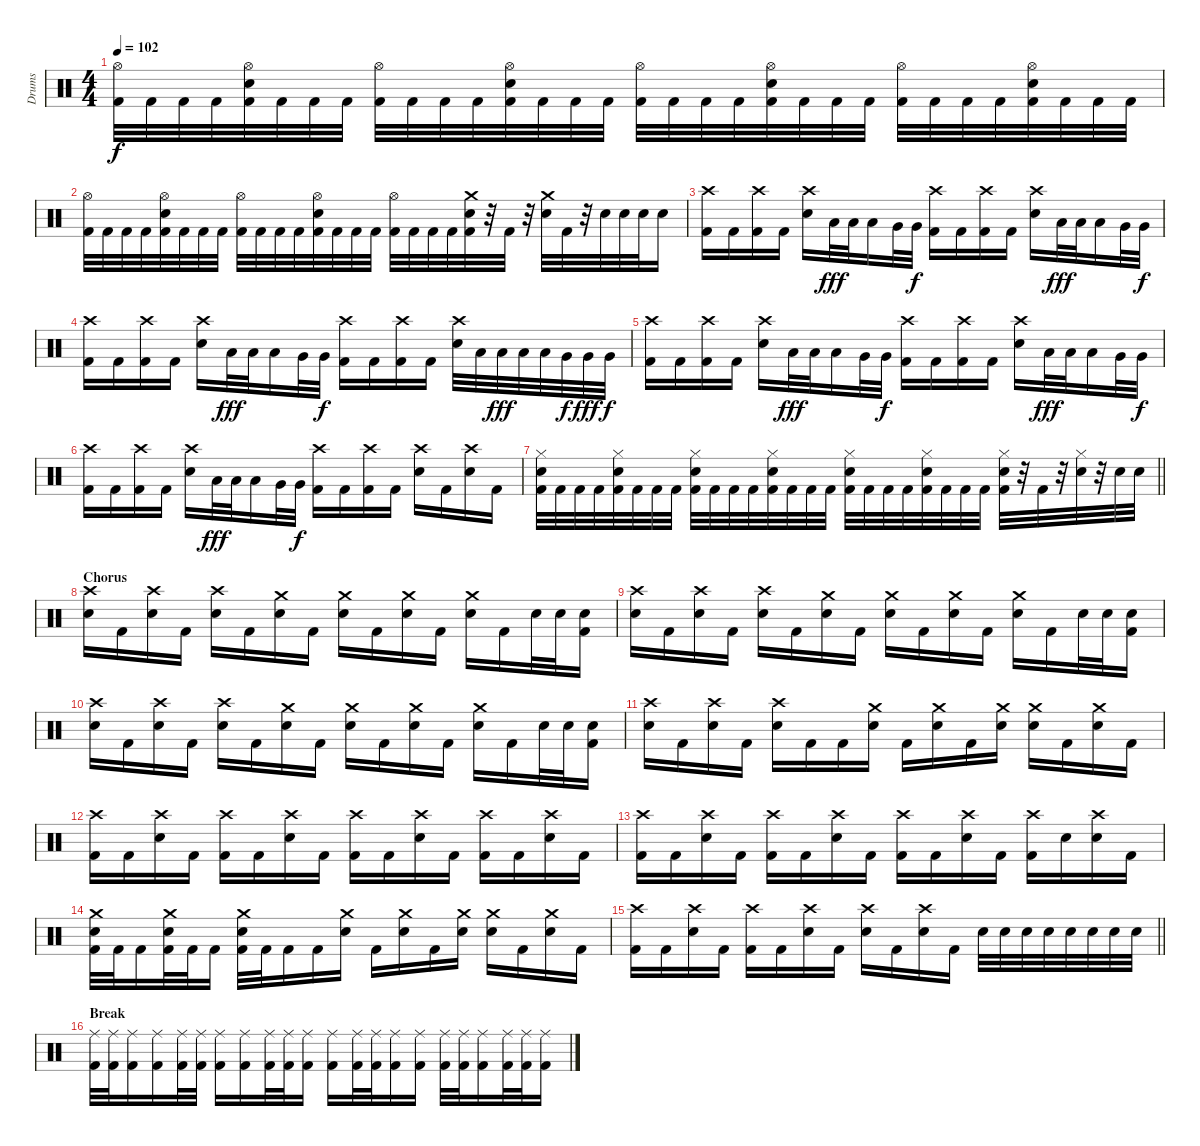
\track ("Drums" "Drums") {instrument percussion}
\staff {score}
\articulation defaults
\ts (4 4)
\tempo 102
\clef neutral
\ks c
("Hi-Hat (open)" "Kick (hit) 2").32{dy f} "Kick (hit) 2".32 "Kick (hit) 2".32 "Kick (hit) 2".32 ("Hi-Hat (open)" "Snare (hit) 2" "Kick (hit) 2").32 "Kick (hit) 2".32 "Kick (hit) 2".32 "Kick (hit) 2".32 ("Hi-Hat (open)" "Kick (hit) 2").32 "Kick (hit) 2".32 "Kick (hit) 2".32 "Kick (hit) 2".32 ("Hi-Hat (open)" "Snare (hit) 2" "Kick (hit) 2").32 "Kick (hit) 2".32 "Kick (hit) 2".32 "Kick (hit) 2".32 ("Hi-Hat (open)" "Kick (hit) 2").32 "Kick (hit) 2".32 "Kick (hit) 2".32 "Kick (hit) 2".32 ("Hi-Hat (open)" "Snare (hit) 2" "Kick (hit) 2").32 "Kick (hit) 2".32 "Kick (hit) 2".32 "Kick (hit) 2".32 ("Hi-Hat (open)" "Kick (hit) 2").32 "Kick (hit) 2".32 "Kick (hit) 2".32 "Kick (hit) 2".32 ("Hi-Hat (open)" "Snare (hit) 2" "Kick (hit) 2").32 "Kick (hit) 2".32 "Kick (hit) 2".32 "Kick (hit) 2".32 |
("Hi-Hat (open)" "Kick (hit) 2").32 "Kick (hit) 2".32 "Kick (hit) 2".32 "Kick (hit) 2".32 ("Hi-Hat (open)" "Snare (hit) 2" "Kick (hit) 2").32 "Kick (hit) 2".32 "Kick (hit) 2".32 "Kick (hit) 2".32 ("Hi-Hat (open)" "Kick (hit) 2").32 "Kick (hit) 2".32 "Kick (hit) 2".32 "Kick (hit) 2".32 ("Hi-Hat (open)" "Snare (hit) 2" "Kick (hit) 2").32 "Kick (hit) 2".32 "Kick (hit) 2".32 "Kick (hit) 2".32 ("Hi-Hat (open)" "Kick (hit) 2").32 "Kick (hit) 2".32 "Kick (hit) 2".32 "Kick (hit) 2".32 ("Crash medium (hit)" "Snare (hit) 2" "Kick (hit) 2").32 r.32 "Kick (hit) 2".32 r.32 ("Crash medium (hit)" "Snare (hit) 2").32 "Kick (hit) 2".32 r.32 "Snare (hit) 2".32 "Snare (hit) 2".32 "Snare (hit) 2".32 "Snare (hit) 2".16 |
("Crash high (hit)" "Kick (hit) 2").16 "Kick (hit) 2".16 ("Crash high (hit)" "Kick (hit) 2").16 "Kick (hit) 2".16 ("Crash high (hit)" "Snare (hit) 2").16 "Low Tom (hit)".32{dy fff} "Low Tom (hit)".32 "Low Tom (hit)".16 "Very Low Tom (hit)".32 "Very Low Tom (hit)".32{dy f} ("Crash high (hit)" "Kick (hit) 2").16 "Kick (hit) 2".16 ("Crash high (hit)" "Kick (hit) 2").16 "Kick (hit) 2".16 ("Crash high (hit)" "Snare (hit) 2").16 "Low Tom (hit)".32{dy fff} "Low Tom (hit)".32 "Low Tom (hit)".16 "Very Low Tom (hit)".32 "Very Low Tom (hit)".32{dy f} |
("Crash high (hit)" "Kick (hit) 2").16 "Kick (hit) 2".16 ("Crash high (hit)" "Kick (hit) 2").16 "Kick (hit) 2".16 ("Crash high (hit)" "Snare (hit) 2").16 "Low Tom (hit)".32{dy fff} "Low Tom (hit)".32 "Low Tom (hit)".16 "Very Low Tom (hit)".32 "Very Low Tom (hit)".32{dy f} ("Crash high (hit)" "Kick (hit) 2").16 "Kick (hit) 2".16 ("Crash high (hit)" "Kick (hit) 2").16 "Kick (hit) 2".16 ("Crash high (hit)" "Snare (hit) 2").32 "Low Tom (hit)".32 "Low Tom (hit)".32{dy fff} "Low Tom (hit)".32 "Low Tom (hit)".32 "Very Low Tom (hit)".32{dy f} "Very Low Tom (hit)".32{dy fff} "Very Low Tom (hit)".32{dy f} |
("Crash high (hit)" "Kick (hit) 2").16 "Kick (hit) 2".16 ("Crash high (hit)" "Kick (hit) 2").16 "Kick (hit) 2".16 ("Crash high (hit)" "Snare (hit) 2").16 "Low Tom (hit)".32{dy fff} "Low Tom (hit)".32 "Low Tom (hit)".16 "Very Low Tom (hit)".32 "Very Low Tom (hit)".32{dy f} ("Crash high (hit)" "Kick (hit) 2").16 "Kick (hit) 2".16 ("Crash high (hit)" "Kick (hit) 2").16 "Kick (hit) 2".16 ("Crash high (hit)" "Snare (hit) 2").16 "Low Tom (hit)".32{dy fff} "Low Tom (hit)".32 "Low Tom (hit)".16 "Very Low Tom (hit)".32 "Very Low Tom (hit)".32{dy f} |
("Crash high (hit)" "Kick (hit) 2").16 "Kick (hit) 2".16 ("Crash high (hit)" "Kick (hit) 2").16 "Kick (hit) 2".16 ("Crash high (hit)" "Snare (hit) 2").16 "Low Tom (hit)".32{dy fff} "Low Tom (hit)".32 "Low Tom (hit)".16 "Very Low Tom (hit)".32 "Very Low Tom (hit)".32{dy f} ("Crash high (hit)" "Kick (hit) 2").16 "Kick (hit) 2".16 ("Crash high (hit)" "Kick (hit) 2").16 "Kick (hit) 2".16 ("Crash high (hit)" "Snare (hit) 2").16 "Kick (hit) 2".16 ("Crash high (hit)" "Snare (hit) 2").16 "Kick (hit) 2".16 |
\barLineRight lightlight
("Hi-Hat (closed)" "Snare (hit) 2" "Kick (hit) 2").32 "Kick (hit) 2".32 "Kick (hit) 2".32 "Kick (hit) 2".32 ("Hi-Hat (closed)" "Snare (hit) 2" "Kick (hit) 2").32 "Kick (hit) 2".32 "Kick (hit) 2".32 "Kick (hit) 2".32 ("Hi-Hat (closed)" "Snare (hit) 2" "Kick (hit) 2").32 "Kick (hit) 2".32 "Kick (hit) 2".32 "Kick (hit) 2".32 ("Hi-Hat (closed)" "Snare (hit) 2" "Kick (hit) 2").32 "Kick (hit) 2".32 "Kick (hit) 2".32 "Kick (hit) 2".32 ("Hi-Hat (closed)" "Snare (hit) 2" "Kick (hit) 2").32 "Kick (hit) 2".32 "Kick (hit) 2".32 "Kick (hit) 2".32 ("Hi-Hat (closed)" "Snare (hit) 2" "Kick (hit) 2").32 "Kick (hit) 2".32 "Kick (hit) 2".32 "Kick (hit) 2".32 ("Hi-Hat (closed)" "Snare (hit) 2" "Kick (hit) 2").32 r.32 "Kick (hit) 2".32 r.32 ("Hi-Hat (closed)" "Snare (hit) 2").32 r.32 "Snare (hit) 2".32 "Snare (hit) 2".32 |
\section ("" "Chorus")
("Crash high (hit)" "Snare (hit) 2").16 "Kick (hit) 2".16 ("Crash high (hit)" "Snare (hit) 2").16 "Kick (hit) 2".16 ("Crash high (hit)" "Snare (hit) 2").16 "Kick (hit) 2".16 ("Crash medium (hit)" "Snare (hit) 2").16 "Kick (hit) 2".16 ("Crash medium (hit)" "Snare (hit) 2").16 "Kick (hit) 2".16 ("Crash medium (hit)" "Snare (hit) 2").16 "Kick (hit) 2".16 ("Crash medium (hit)" "Snare (hit) 2").16 "Kick (hit) 2".16 "Snare (hit) 2".32 "Snare (hit) 2".32 ("Snare (hit) 2" "Kick (hit) 2").16 |
("Crash high (hit)" "Snare (hit) 2").16 "Kick (hit) 2".16 ("Crash high (hit)" "Snare (hit) 2").16 "Kick (hit) 2".16 ("Crash high (hit)" "Snare (hit) 2").16 "Kick (hit) 2".16 ("Crash medium (hit)" "Snare (hit) 2").16 "Kick (hit) 2".16 ("Crash medium (hit)" "Snare (hit) 2").16 "Kick (hit) 2".16 ("Crash medium (hit)" "Snare (hit) 2").16 "Kick (hit) 2".16 ("Crash medium (hit)" "Snare (hit) 2").16 "Kick (hit) 2".16 "Snare (hit) 2".32 "Snare (hit) 2".32 ("Snare (hit) 2" "Kick (hit) 2").16 |
("Crash high (hit)" "Snare (hit) 2").16 "Kick (hit) 2".16 ("Crash high (hit)" "Snare (hit) 2").16 "Kick (hit) 2".16 ("Crash high (hit)" "Snare (hit) 2").16 "Kick (hit) 2".16 ("Crash medium (hit)" "Snare (hit) 2").16 "Kick (hit) 2".16 ("Crash medium (hit)" "Snare (hit) 2").16 "Kick (hit) 2".16 ("Crash medium (hit)" "Snare (hit) 2").16 "Kick (hit) 2".16 ("Crash medium (hit)" "Snare (hit) 2").16 "Kick (hit) 2".16 "Snare (hit) 2".32 "Snare (hit) 2".32 ("Snare (hit) 2" "Kick (hit) 2").16 |
("Crash high (hit)" "Snare (hit) 2").16 "Kick (hit) 2".16 ("Crash high (hit)" "Snare (hit) 2").16 "Kick (hit) 2".16 ("Crash high (hit)" "Snare (hit) 2").16 "Kick (hit) 2".16 "Kick (hit) 2".16 ("Crash medium (hit)" "Snare (hit) 2").16 "Kick (hit) 2".16 ("Crash medium (hit)" "Snare (hit) 2").16 "Kick (hit) 2".16 ("Crash medium (hit)" "Snare (hit) 2").16 ("Crash medium (hit)" "Snare (hit) 2").16 "Kick (hit) 2".16 ("Crash medium (hit)" "Snare (hit) 2").16 "Kick (hit) 2".16 |
("Crash high (hit)" "Kick (hit) 2").16 "Kick (hit) 2".16 ("Crash high (hit)" "Snare (hit) 2").16 "Kick (hit) 2".16 ("Crash high (hit)" "Kick (hit) 2").16 "Kick (hit) 2".16 ("Crash high (hit)" "Snare (hit) 2").16 "Kick (hit) 2".16 ("Crash high (hit)" "Kick (hit) 2").16 "Kick (hit) 2".16 ("Crash high (hit)" "Snare (hit) 2").16 "Kick (hit) 2".16 ("Crash high (hit)" "Kick (hit) 2").16 "Kick (hit) 2".16 ("Crash high (hit)" "Snare (hit) 2").16 "Kick (hit) 2".16 |
("Crash high (hit)" "Kick (hit) 2").16 "Kick (hit) 2".16 ("Crash high (hit)" "Snare (hit) 2").16 "Kick (hit) 2".16 ("Crash high (hit)" "Kick (hit) 2").16 "Kick (hit) 2".16 ("Crash high (hit)" "Snare (hit) 2").16 "Kick (hit) 2".16 ("Crash high (hit)" "Kick (hit) 2").16 "Kick (hit) 2".16 ("Crash high (hit)" "Snare (hit) 2").16 "Kick (hit) 2".16 ("Crash high (hit)" "Kick (hit) 2").16 "Snare (hit) 2".16 ("Crash high (hit)" "Snare (hit) 2").16 "Kick (hit) 2".16 |
("Crash medium (hit)" "Snare (hit) 2" "Kick (hit) 2").32 "Kick (hit) 2".32 "Kick (hit) 2".16 ("Crash medium (hit)" "Snare (hit) 2" "Kick (hit) 2").32 "Kick (hit) 2".32 "Kick (hit) 2".16 ("Crash medium (hit)" "Snare (hit) 2" "Kick (hit) 2").32 "Kick (hit) 2".32 "Kick (hit) 2".16 "Kick (hit) 2".16 ("Crash medium (hit)" "Snare (hit) 2").16 "Kick (hit) 2".16 ("Crash medium (hit)" "Snare (hit) 2").16 "Kick (hit) 2".16 ("Crash medium (hit)" "Snare (hit) 2").16 ("Crash medium (hit)" "Snare (hit) 2").16 "Kick (hit) 2".16 ("Crash medium (hit)" "Snare (hit) 2").16 "Kick (hit) 2".16 |
\barLineRight lightlight
("Crash high (hit)" "Kick (hit) 2").16 "Kick (hit) 2".16 ("Crash high (hit)" "Snare (hit) 2").16 "Kick (hit) 2".16 ("Crash high (hit)" "Kick (hit) 2").16 "Kick (hit) 2".16 ("Crash high (hit)" "Snare (hit) 2").16 "Kick (hit) 2".16 ("Crash high (hit)" "Snare (hit) 2").16 "Kick (hit) 2".16 ("Crash high (hit)" "Snare (hit) 2").16 "Kick (hit) 2".16 "Snare (hit) 2".32 "Snare (hit) 2".32 "Snare (hit) 2".32 "Snare (hit) 2".32 "Snare (hit) 2".32 "Snare (hit) 2".32 "Snare (hit) 2".32 "Snare (hit) 2".32 |
\section ("" "Break")
("Ride (middle)" "Kick (hit) 2").32 ("Ride (middle)" "Kick (hit) 2").32 ("Ride (middle)" "Kick (hit) 2").16 ("Ride (middle)" "Kick (hit) 2").16 ("Ride (middle)" "Kick (hit) 2").32 ("Ride (middle)" "Kick (hit) 2").32 ("Ride (middle)" "Kick (hit) 2").16 ("Ride (middle)" "Kick (hit) 2").16 ("Ride (middle)" "Kick (hit) 2").32 ("Ride (middle)" "Kick (hit) 2").32 ("Ride (middle)" "Kick (hit) 2").16 ("Ride (middle)" "Kick (hit) 2").16 ("Ride (middle)" "Kick (hit) 2").32 ("Ride (middle)" "Kick (hit) 2").32 ("Ride (middle)" "Kick (hit) 2").16 ("Ride (middle)" "Kick (hit) 2").16 ("Ride (middle)" "Kick (hit) 2").32 ("Ride (middle)" "Kick (hit) 2").32 ("Ride (middle)" "Kick (hit) 2").16 ("Ride (middle)" "Kick (hit) 2").32 ("Ride (middle)" "Kick (hit) 2").32 ("Ride (middle)" "Kick (hit) 2").16
